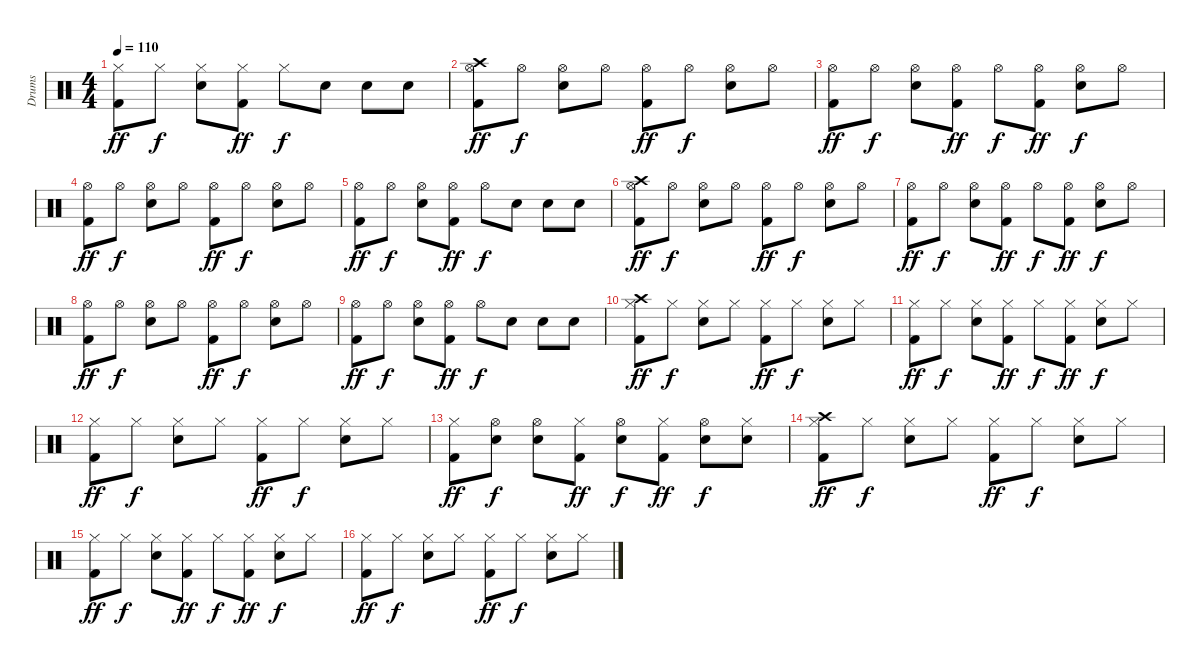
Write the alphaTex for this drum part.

\track ("Drums" "Drums") {instrument percussion}
\staff {score}
\articulation defaults
\ts (4 4)
\tempo 110
\clef neutral
\ks c
("Hi-Hat (closed)" "Kick (hit) 2").8{dy ff} "Hi-Hat (closed)".8{dy f} ("Hi-Hat (closed)" "Electric Snare (hit)").8 ("Hi-Hat (closed)" "Kick (hit) 2").8{dy ff} "Hi-Hat (closed)".8{dy f} "Electric Snare (hit)".8 "Electric Snare (hit)".8 "Electric Snare (hit)".8 |
("Hi-Hat (open)" "Crash high (hit)" "Kick (hit) 2").8{dy ff} "Hi-Hat (open)".8{dy f} ("Hi-Hat (open)" "Electric Snare (hit)").8 "Hi-Hat (open)".8 ("Hi-Hat (open)" "Kick (hit) 2").8{dy ff} "Hi-Hat (open)".8{dy f} ("Hi-Hat (open)" "Electric Snare (hit)").8 "Hi-Hat (open)".8 |
("Hi-Hat (open)" "Kick (hit) 2").8{dy ff} "Hi-Hat (open)".8{dy f} ("Hi-Hat (open)" "Electric Snare (hit)").8 ("Hi-Hat (open)" "Kick (hit) 2").8{dy ff} "Hi-Hat (open)".8{dy f} ("Hi-Hat (open)" "Kick (hit) 2").8{dy ff} ("Hi-Hat (open)" "Electric Snare (hit)").8{dy f} "Hi-Hat (open)".8 |
("Hi-Hat (open)" "Kick (hit) 2").8{dy ff} "Hi-Hat (open)".8{dy f} ("Hi-Hat (open)" "Electric Snare (hit)").8 "Hi-Hat (open)".8 ("Hi-Hat (open)" "Kick (hit) 2").8{dy ff} "Hi-Hat (open)".8{dy f} ("Hi-Hat (open)" "Electric Snare (hit)").8 "Hi-Hat (open)".8 |
("Hi-Hat (open)" "Kick (hit) 2").8{dy ff} "Hi-Hat (open)".8{dy f} ("Hi-Hat (open)" "Electric Snare (hit)").8 ("Hi-Hat (open)" "Kick (hit) 2").8{dy ff} "Hi-Hat (open)".8{dy f} "Electric Snare (hit)".8 "Electric Snare (hit)".8 "Electric Snare (hit)".8 |
("Hi-Hat (open)" "Crash high (hit)" "Kick (hit) 2").8{dy ff} "Hi-Hat (open)".8{dy f} ("Hi-Hat (open)" "Electric Snare (hit)").8 "Hi-Hat (open)".8 ("Hi-Hat (open)" "Kick (hit) 2").8{dy ff} "Hi-Hat (open)".8{dy f} ("Hi-Hat (open)" "Electric Snare (hit)").8 "Hi-Hat (open)".8 |
("Hi-Hat (open)" "Kick (hit) 2").8{dy ff} "Hi-Hat (open)".8{dy f} ("Hi-Hat (open)" "Electric Snare (hit)").8 ("Hi-Hat (open)" "Kick (hit) 2").8{dy ff} "Hi-Hat (open)".8{dy f} ("Hi-Hat (open)" "Kick (hit) 2").8{dy ff} ("Hi-Hat (open)" "Electric Snare (hit)").8{dy f} "Hi-Hat (open)".8 |
("Hi-Hat (open)" "Kick (hit) 2").8{dy ff} "Hi-Hat (open)".8{dy f} ("Hi-Hat (open)" "Electric Snare (hit)").8 "Hi-Hat (open)".8 ("Hi-Hat (open)" "Kick (hit) 2").8{dy ff} "Hi-Hat (open)".8{dy f} ("Hi-Hat (open)" "Electric Snare (hit)").8 "Hi-Hat (open)".8 |
("Hi-Hat (open)" "Kick (hit) 2").8{dy ff} "Hi-Hat (open)".8{dy f} ("Hi-Hat (open)" "Electric Snare (hit)").8 ("Hi-Hat (open)" "Kick (hit) 2").8{dy ff} "Hi-Hat (open)".8{dy f} "Electric Snare (hit)".8 "Electric Snare (hit)".8 "Electric Snare (hit)".8 |
("Hi-Hat (closed)" "Crash high (hit)" "Kick (hit) 2").8{dy ff} "Hi-Hat (closed)".8{dy f} ("Hi-Hat (closed)" "Electric Snare (hit)").8 "Hi-Hat (closed)".8 ("Hi-Hat (closed)" "Kick (hit) 2").8{dy ff} "Hi-Hat (closed)".8{dy f} ("Hi-Hat (closed)" "Electric Snare (hit)").8 "Hi-Hat (closed)".8 |
("Hi-Hat (closed)" "Kick (hit) 2").8{dy ff} "Hi-Hat (closed)".8{dy f} ("Hi-Hat (closed)" "Electric Snare (hit)").8 ("Hi-Hat (closed)" "Kick (hit) 2").8{dy ff} "Hi-Hat (closed)".8{dy f} ("Hi-Hat (closed)" "Kick (hit) 2").8{dy ff} ("Hi-Hat (closed)" "Electric Snare (hit)").8{dy f} "Hi-Hat (closed)".8 |
("Hi-Hat (closed)" "Kick (hit) 2").8{dy ff} "Hi-Hat (closed)".8{dy f} ("Hi-Hat (closed)" "Electric Snare (hit)").8 "Hi-Hat (closed)".8 ("Hi-Hat (closed)" "Kick (hit) 2").8{dy ff} "Hi-Hat (closed)".8{dy f} ("Hi-Hat (closed)" "Electric Snare (hit)").8 "Hi-Hat (closed)".8 |
("Hi-Hat (closed)" "Kick (hit) 2").8{dy ff} ("Hi-Hat (open)" "Electric Snare (hit)").8{dy f} ("Hi-Hat (open)" "Electric Snare (hit)").8 ("Hi-Hat (closed)" "Kick (hit) 2").8{dy ff} ("Hi-Hat (open)" "Electric Snare (hit)").8{dy f} ("Hi-Hat (closed)" "Kick (hit) 2").8{dy ff} ("Hi-Hat (open)" "Electric Snare (hit)").8{dy f} ("Hi-Hat (closed)" "Electric Snare (hit)").8 |
("Hi-Hat (closed)" "Crash high (hit)" "Kick (hit) 2").8{dy ff} "Hi-Hat (closed)".8{dy f} ("Hi-Hat (closed)" "Electric Snare (hit)").8 "Hi-Hat (closed)".8 ("Hi-Hat (closed)" "Kick (hit) 2").8{dy ff} "Hi-Hat (closed)".8{dy f} ("Hi-Hat (closed)" "Electric Snare (hit)").8 "Hi-Hat (closed)".8 |
("Hi-Hat (closed)" "Kick (hit) 2").8{dy ff} "Hi-Hat (closed)".8{dy f} ("Hi-Hat (closed)" "Electric Snare (hit)").8 ("Hi-Hat (closed)" "Kick (hit) 2").8{dy ff} "Hi-Hat (closed)".8{dy f} ("Hi-Hat (closed)" "Kick (hit) 2").8{dy ff} ("Hi-Hat (closed)" "Electric Snare (hit)").8{dy f} "Hi-Hat (closed)".8 |
("Hi-Hat (closed)" "Kick (hit) 2").8{dy ff} "Hi-Hat (closed)".8{dy f} ("Hi-Hat (closed)" "Electric Snare (hit)").8 "Hi-Hat (closed)".8 ("Hi-Hat (closed)" "Kick (hit) 2").8{dy ff} "Hi-Hat (closed)".8{dy f} ("Hi-Hat (closed)" "Electric Snare (hit)").8 "Hi-Hat (closed)".8
